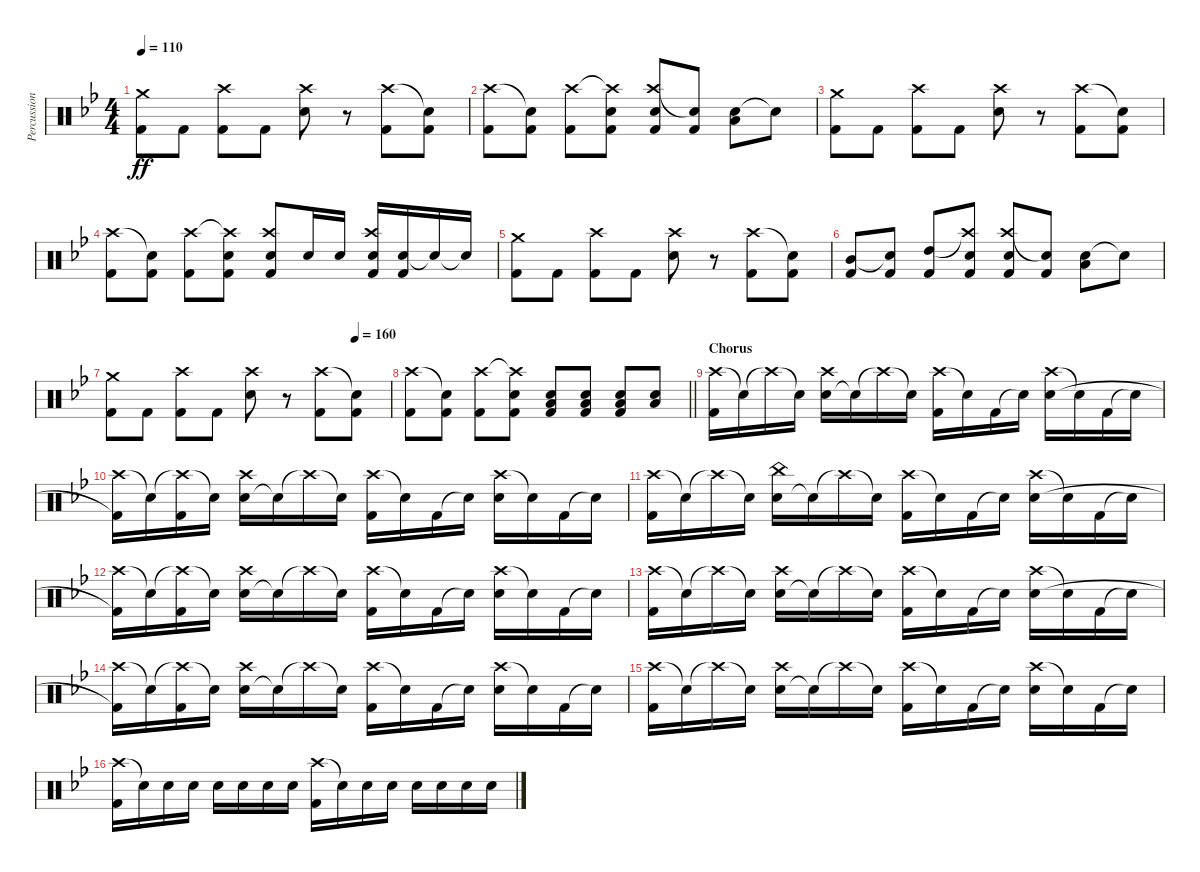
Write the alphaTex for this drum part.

\track ("Percussion" "Percussion") {instrument percussion}
\staff {score}
\articulation defaults
\ts (4 4)
\tempo 110
\clef neutral
\ks bb
("Crash medium (hit)" "Kick (hit) 2").8{dy ff} "Kick (hit) 2".8 ("Crash high (hit)" "Kick (hit) 2").8 "Kick (hit) 2".8 ("Crash high (hit)" "Electric Snare (hit)").8 r.8 ("Crash high (hit)" "Kick (hit) 2").8 ("Snare (hit)"{t} "Kick (hit) 2").8 |
("Crash high (hit)" "Kick (hit) 2").8 ("Snare (hit)"{t} "Kick (hit) 2").8 ("Crash high (hit)" "Kick (hit) 2").8 ("Crash high (hit)"{t} "Electric Snare (hit)" "Kick (hit) 2").8 ("Crash high (hit)" "Electric Snare (hit)" "Kick (hit) 2").8 ("Snare (hit)"{t} "Kick (hit) 2").8 ("Electric Snare (hit)" "Low Floor Tom (hit)").8 "Snare (hit)"{t}.8 |
("Crash medium (hit)" "Kick (hit) 2").8 "Kick (hit) 2".8 ("Crash high (hit)" "Kick (hit) 2").8 "Kick (hit) 2".8 ("Crash high (hit)" "Electric Snare (hit)").8 r.8 ("Crash high (hit)" "Kick (hit) 2").8 ("Snare (hit)"{t} "Kick (hit) 2").8 |
("Crash high (hit)" "Kick (hit) 2").8 ("Snare (hit)"{t} "Kick (hit) 2").8 ("Crash high (hit)" "Kick (hit) 2").8 ("Crash high (hit)"{t} "Electric Snare (hit)" "Kick (hit) 2").8 ("Crash high (hit)" "Electric Snare (hit)" "Kick (hit) 2").8 "Electric Snare (hit)".16 "Electric Snare (hit)".16 ("Electric Snare (hit)" "Kick (hit) 2" "Crash high (hit)").16 ("Electric Snare (hit)" "Kick (hit) 2").16 "Snare (hit)"{t}.16 "Snare (hit)"{t}.16 |
("Crash medium (hit)" "Kick (hit) 2").8 "Kick (hit) 2".8 ("Crash high (hit)" "Kick (hit) 2").8 "Kick (hit) 2".8 ("Crash high (hit)" "Electric Snare (hit)").8 r.8 ("Crash high (hit)" "Kick (hit) 2").8 ("Snare (hit)"{t} "Kick (hit) 2").8 |
("Mid Tom (hit)" "Kick (hit) 2").8 ("Snare (hit)"{t} "Kick (hit) 2").8 ("High Tom (hit)" "Kick (hit) 2").8 ("Crash high (hit)"{t} "Electric Snare (hit)" "Kick (hit) 2").8 ("Crash high (hit)" "Electric Snare (hit)" "Kick (hit) 2").8 ("Snare (hit)"{t} "Kick (hit) 2").8 ("Electric Snare (hit)" "Low Floor Tom (hit)").8 "Snare (hit)"{t}.8 |
\tempo (160 0.875)
("Crash medium (hit)" "Kick (hit) 2").8 "Kick (hit) 2".8 ("Crash high (hit)" "Kick (hit) 2").8 "Kick (hit) 2".8 ("Crash high (hit)" "Electric Snare (hit)").8 r.8 ("Crash high (hit)" "Kick (hit) 2").8 ("Snare (hit)"{t} "Kick (hit) 2").8 |
\barLineRight lightlight
("Crash high (hit)" "Kick (hit) 2").8 ("Snare (hit)"{t} "Kick (hit) 2").8 ("Crash high (hit)" "Kick (hit) 2").8 ("Crash high (hit)"{t} "Electric Snare (hit)" "Kick (hit) 2").8 ("Kick (hit) 2" "Low Floor Tom (hit)" "Electric Snare (hit)").8 ("Kick (hit) 2" "Low Floor Tom (hit)" "Electric Snare (hit)").8 ("Kick (hit) 2" "Low Floor Tom (hit)" "Electric Snare (hit)").8 ("Low Floor Tom (hit)" "Electric Snare (hit)").8 |
\section ("" "Chorus")
("Crash high (hit)" "Kick (hit) 2").16 "Snare (hit)"{t}.16 "Crash high (hit)"{t}.16 "Snare (hit)"{t}.16 ("Electric Snare (hit)" "Crash high (hit)").16 "Snare (hit)"{t}.16 "Crash high (hit)"{t}.16 "Snare (hit)"{t}.16 ("Crash high (hit)" "Kick (hit) 2").16 "Snare (hit)"{t}.16 "Kick (hit) 2".16 "Snare (hit)"{t}.16 ("Crash high (hit)" "Electric Snare (hit)").16 "Snare (hit)"{t}.16 "Kick (hit) 2".16 "Snare (hit)"{t}.16 |
("Crash high (hit)" "Kick (hit) 2"{t}).16 "Snare (hit)"{t}.16 ("Crash high (hit)"{t} "Kick (hit) 2").16 "Snare (hit)"{t}.16 ("Electric Snare (hit)" "Crash high (hit)").16 "Snare (hit)"{t}.16 "Crash high (hit)"{t}.16 "Snare (hit)"{t}.16 ("Crash high (hit)" "Kick (hit) 2").16 "Snare (hit)"{t}.16 "Kick (hit) 2".16 "Snare (hit)"{t}.16 ("Crash high (hit)" "Electric Snare (hit)").16 "Snare (hit)"{t}.16 "Kick (hit) 2".16 "Snare (hit)"{t}.16 |
("Crash high (hit)" "Kick (hit) 2").16 "Snare (hit)"{t}.16 "Crash high (hit)"{t}.16 "Snare (hit)"{t}.16 ("Electric Snare (hit)" "China (hit)").16 "Snare (hit)"{t}.16 "Crash high (hit)"{t}.16 "Snare (hit)"{t}.16 ("Crash high (hit)" "Kick (hit) 2").16 "Snare (hit)"{t}.16 "Kick (hit) 2".16 "Snare (hit)"{t}.16 ("Crash high (hit)" "Electric Snare (hit)").16 "Snare (hit)"{t}.16 "Kick (hit) 2".16 "Snare (hit)"{t}.16 |
("Crash high (hit)" "Kick (hit) 2"{t}).16 "Snare (hit)"{t}.16 ("Crash high (hit)"{t} "Kick (hit) 2").16 "Snare (hit)"{t}.16 ("Electric Snare (hit)" "Crash high (hit)").16 "Snare (hit)"{t}.16 "Crash high (hit)"{t}.16 "Snare (hit)"{t}.16 ("Crash high (hit)" "Kick (hit) 2").16 "Snare (hit)"{t}.16 "Kick (hit) 2".16 "Snare (hit)"{t}.16 ("Crash high (hit)" "Electric Snare (hit)").16 "Snare (hit)"{t}.16 "Kick (hit) 2".16 "Snare (hit)"{t}.16 |
("Crash high (hit)" "Kick (hit) 2").16 "Snare (hit)"{t}.16 "Crash high (hit)"{t}.16 "Snare (hit)"{t}.16 ("Electric Snare (hit)" "Crash high (hit)").16 "Snare (hit)"{t}.16 "Crash high (hit)"{t}.16 "Snare (hit)"{t}.16 ("Crash high (hit)" "Kick (hit) 2").16 "Snare (hit)"{t}.16 "Kick (hit) 2".16 "Snare (hit)"{t}.16 ("Crash high (hit)" "Electric Snare (hit)").16 "Snare (hit)"{t}.16 "Kick (hit) 2".16 "Snare (hit)"{t}.16 |
("Crash high (hit)" "Kick (hit) 2"{t}).16 "Snare (hit)"{t}.16 ("Crash high (hit)"{t} "Kick (hit) 2").16 "Snare (hit)"{t}.16 ("Electric Snare (hit)" "Crash high (hit)").16 "Snare (hit)"{t}.16 "Crash high (hit)"{t}.16 "Snare (hit)"{t}.16 ("Crash high (hit)" "Kick (hit) 2").16 "Snare (hit)"{t}.16 "Kick (hit) 2".16 "Snare (hit)"{t}.16 ("Crash high (hit)" "Electric Snare (hit)").16 "Snare (hit)"{t}.16 "Kick (hit) 2".16 "Snare (hit)"{t}.16 |
("Crash high (hit)" "Kick (hit) 2").16 "Snare (hit)"{t}.16 "Crash high (hit)"{t}.16 "Snare (hit)"{t}.16 ("Electric Snare (hit)" "Crash high (hit)").16 "Snare (hit)"{t}.16 "Crash high (hit)"{t}.16 "Snare (hit)"{t}.16 ("Crash high (hit)" "Kick (hit) 2").16 "Snare (hit)"{t}.16 "Kick (hit) 2".16 "Snare (hit)"{t}.16 ("Crash high (hit)" "Electric Snare (hit)").16 "Snare (hit)"{t}.16 "Kick (hit) 2".16 "Snare (hit)"{t}.16 |
("Crash high (hit)" "Kick (hit) 2").16 "Snare (hit)"{t}.16 "Electric Snare (hit)".16 "Electric Snare (hit)".16 "Electric Snare (hit)".16 "Electric Snare (hit)".16 "Electric Snare (hit)".16 "Electric Snare (hit)".16 ("Crash high (hit)" "Kick (hit) 2").16 "Snare (hit)"{t}.16 "Electric Snare (hit)".16 "Electric Snare (hit)".16 "Electric Snare (hit)".16 "Electric Snare (hit)".16 "Electric Snare (hit)".16 "Electric Snare (hit)".16
